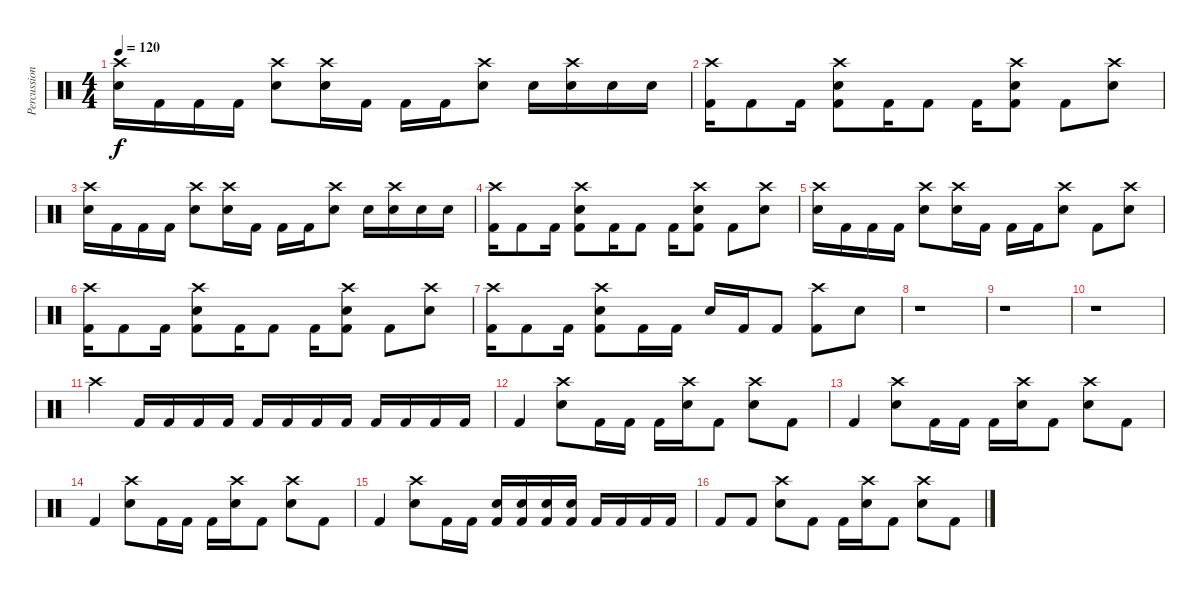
\track ("Percussion" "Percussion") {instrument percussion}
\staff {score}
\articulation defaults
\ts (4 4)
\tempo 120
\clef neutral
\ks c
("Crash high (hit)" "Snare (hit) 2").16{dy f} "Kick (hit) 2".16 "Kick (hit) 2".16 "Kick (hit) 2".16 ("Crash high (hit)" "Snare (hit) 2").8 ("Crash high (hit)" "Snare (hit) 2").16 "Kick (hit) 2".16 "Kick (hit) 2".16 "Kick (hit) 2".16 ("Crash high (hit)" "Snare (hit) 2").8 "Snare (hit) 2".16 ("Crash high (hit)" "Snare (hit) 2").16 "Snare (hit) 2".16 "Snare (hit) 2".16 |
("Crash high (hit)" "Kick (hit) 2").16 "Kick (hit) 2".8 "Kick (hit) 2".16 ("Crash high (hit)" "Snare (hit) 2" "Kick (hit) 2").8 "Kick (hit) 2".16 "Kick (hit) 2".8 "Kick (hit) 2".16 ("Crash high (hit)" "Snare (hit) 2" "Kick (hit) 2").8 "Kick (hit) 2".8 ("Crash high (hit)" "Snare (hit) 2").8 |
("Crash high (hit)" "Snare (hit) 2").16 "Kick (hit) 2".16 "Kick (hit) 2".16 "Kick (hit) 2".16 ("Crash high (hit)" "Snare (hit) 2").8 ("Crash high (hit)" "Snare (hit) 2").16 "Kick (hit) 2".16 "Kick (hit) 2".16 "Kick (hit) 2".16 ("Crash high (hit)" "Snare (hit) 2").8 "Snare (hit) 2".16 ("Crash high (hit)" "Snare (hit) 2").16 "Snare (hit) 2".16 "Snare (hit) 2".16 |
("Crash high (hit)" "Kick (hit) 2").16 "Kick (hit) 2".8 "Kick (hit) 2".16 ("Crash high (hit)" "Snare (hit) 2" "Kick (hit) 2").8 "Kick (hit) 2".16 "Kick (hit) 2".8 "Kick (hit) 2".16 ("Crash high (hit)" "Snare (hit) 2" "Kick (hit) 2").8 "Kick (hit) 2".8 ("Crash high (hit)" "Snare (hit) 2").8 |
("Crash high (hit)" "Snare (hit) 2").16 "Kick (hit) 2".16 "Kick (hit) 2".16 "Kick (hit) 2".16 ("Crash high (hit)" "Snare (hit) 2").8 ("Crash high (hit)" "Snare (hit) 2").16 "Kick (hit) 2".16 "Kick (hit) 2".16 "Kick (hit) 2".16 ("Crash high (hit)" "Snare (hit) 2").8 "Kick (hit) 2".8 ("Crash high (hit)" "Snare (hit) 2").8 |
("Crash high (hit)" "Kick (hit) 2").16 "Kick (hit) 2".8 "Kick (hit) 2".16 ("Crash high (hit)" "Snare (hit) 2" "Kick (hit) 2").8 "Kick (hit) 2".16 "Kick (hit) 2".8 "Kick (hit) 2".16 ("Crash high (hit)" "Snare (hit) 2" "Kick (hit) 2").8 "Kick (hit) 2".8 ("Crash high (hit)" "Snare (hit) 2").8 |
("Crash high (hit)" "Kick (hit) 2").16 "Kick (hit) 2".8 "Kick (hit) 2".16 ("Crash high (hit)" "Snare (hit) 2" "Kick (hit) 2").8 "Kick (hit) 2".16 "Kick (hit) 2".16 "Snare (hit) 2".16 "Kick (hit) 2".16 "Kick (hit) 2".8 ("Crash high (hit)" "Kick (hit) 2").8 "Snare (hit) 2".8 |
r.1 |
r.1 |
r.1 |
"Crash high (hit)".4 "Kick (hit) 2".16 "Kick (hit) 2".16 "Kick (hit) 2".16 "Kick (hit) 2".16 "Kick (hit) 2".16 "Kick (hit) 2".16 "Kick (hit) 2".16 "Kick (hit) 2".16 "Kick (hit) 2".16 "Kick (hit) 2".16 "Kick (hit) 2".16 "Kick (hit) 2".16 |
"Kick (hit) 2".4 ("Crash high (hit)" "Snare (hit) 2").8 "Kick (hit) 2".16 "Kick (hit) 2".16 "Kick (hit) 2".16 ("Crash high (hit)" "Snare (hit) 2").16 "Kick (hit) 2".8 ("Crash high (hit)" "Snare (hit) 2").8 "Kick (hit) 2".8 |
"Kick (hit) 2".4 ("Crash high (hit)" "Snare (hit) 2").8 "Kick (hit) 2".16 "Kick (hit) 2".16 "Kick (hit) 2".16 ("Crash high (hit)" "Snare (hit) 2").16 "Kick (hit) 2".8 ("Crash high (hit)" "Snare (hit) 2").8 "Kick (hit) 2".8 |
"Kick (hit) 2".4 ("Crash high (hit)" "Snare (hit) 2").8 "Kick (hit) 2".16 "Kick (hit) 2".16 "Kick (hit) 2".16 ("Crash high (hit)" "Snare (hit) 2").16 "Kick (hit) 2".8 ("Crash high (hit)" "Snare (hit) 2").8 "Kick (hit) 2".8 |
"Kick (hit) 2".4 ("Crash high (hit)" "Snare (hit) 2").8 "Kick (hit) 2".16 "Kick (hit) 2".16 ("Kick (hit) 2" "Snare (hit) 2").16 ("Kick (hit) 2" "Snare (hit) 2").16 ("Kick (hit) 2" "Snare (hit) 2").16 ("Kick (hit) 2" "Snare (hit) 2").16 "Kick (hit) 2".16 "Kick (hit) 2".16 "Kick (hit) 2".16 "Kick (hit) 2".16 |
"Kick (hit) 2".8 "Kick (hit) 2".8 ("Crash high (hit)" "Snare (hit) 2").8 "Kick (hit) 2".8 "Kick (hit) 2".16 ("Crash high (hit)" "Snare (hit) 2").16 "Kick (hit) 2".8 ("Crash high (hit)" "Snare (hit) 2").8 "Kick (hit) 2".8
